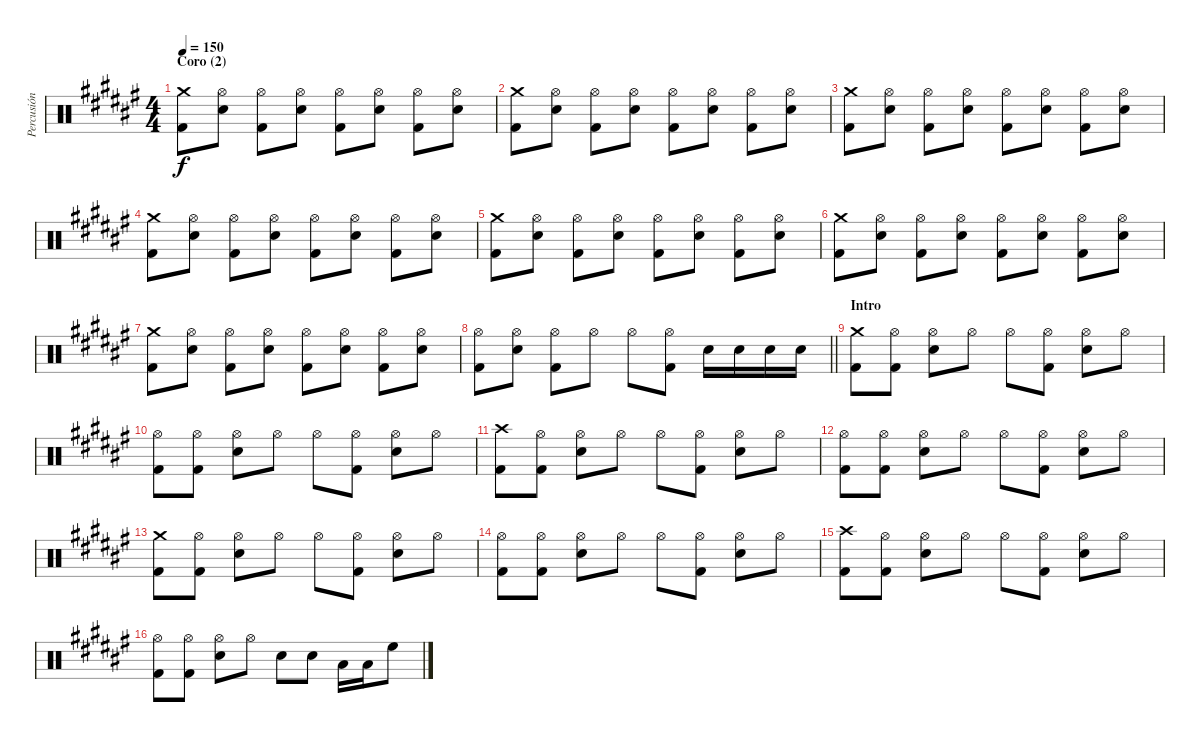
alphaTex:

\track ("Percusión" "Percusión") {instrument percussion}
\staff {score}
\articulation defaults
\ts (4 4)
\section ("" "Coro (2)")
\tempo 150
\clef neutral
\ks d#minor
("Crash medium (hit)" "Kick (hit) 2").8{dy f} ("Hi-Hat (open)" "Electric Snare (hit)").8 ("Hi-Hat (open)" "Kick (hit) 2").8 ("Hi-Hat (open)" "Electric Snare (hit)").8 ("Hi-Hat (open)" "Kick (hit) 2").8 ("Hi-Hat (open)" "Electric Snare (hit)").8 ("Hi-Hat (open)" "Kick (hit) 2").8 ("Hi-Hat (open)" "Electric Snare (hit)").8 |
("Crash medium (hit)" "Kick (hit) 2").8 ("Hi-Hat (open)" "Electric Snare (hit)").8 ("Hi-Hat (open)" "Kick (hit) 2").8 ("Hi-Hat (open)" "Electric Snare (hit)").8 ("Hi-Hat (open)" "Kick (hit) 2").8 ("Hi-Hat (open)" "Electric Snare (hit)").8 ("Hi-Hat (open)" "Kick (hit) 2").8 ("Hi-Hat (open)" "Electric Snare (hit)").8 |
("Crash medium (hit)" "Kick (hit) 2").8 ("Hi-Hat (open)" "Electric Snare (hit)").8 ("Hi-Hat (open)" "Kick (hit) 2").8 ("Hi-Hat (open)" "Electric Snare (hit)").8 ("Hi-Hat (open)" "Kick (hit) 2").8 ("Hi-Hat (open)" "Electric Snare (hit)").8 ("Hi-Hat (open)" "Kick (hit) 2").8 ("Hi-Hat (open)" "Electric Snare (hit)").8 |
("Crash medium (hit)" "Kick (hit) 2").8 ("Hi-Hat (open)" "Electric Snare (hit)").8 ("Hi-Hat (open)" "Kick (hit) 2").8 ("Hi-Hat (open)" "Electric Snare (hit)").8 ("Hi-Hat (open)" "Kick (hit) 2").8 ("Hi-Hat (open)" "Electric Snare (hit)").8 ("Hi-Hat (open)" "Kick (hit) 2").8 ("Hi-Hat (open)" "Electric Snare (hit)").8 |
("Crash medium (hit)" "Kick (hit) 2").8 ("Hi-Hat (open)" "Electric Snare (hit)").8 ("Hi-Hat (open)" "Kick (hit) 2").8 ("Hi-Hat (open)" "Electric Snare (hit)").8 ("Hi-Hat (open)" "Kick (hit) 2").8 ("Hi-Hat (open)" "Electric Snare (hit)").8 ("Hi-Hat (open)" "Kick (hit) 2").8 ("Hi-Hat (open)" "Electric Snare (hit)").8 |
("Crash medium (hit)" "Kick (hit) 2").8 ("Hi-Hat (open)" "Electric Snare (hit)").8 ("Hi-Hat (open)" "Kick (hit) 2").8 ("Hi-Hat (open)" "Electric Snare (hit)").8 ("Hi-Hat (open)" "Kick (hit) 2").8 ("Hi-Hat (open)" "Electric Snare (hit)").8 ("Hi-Hat (open)" "Kick (hit) 2").8 ("Hi-Hat (open)" "Electric Snare (hit)").8 |
("Crash medium (hit)" "Kick (hit) 2").8 ("Hi-Hat (open)" "Electric Snare (hit)").8 ("Hi-Hat (open)" "Kick (hit) 2").8 ("Hi-Hat (open)" "Electric Snare (hit)").8 ("Hi-Hat (open)" "Kick (hit) 2").8 ("Hi-Hat (open)" "Electric Snare (hit)").8 ("Hi-Hat (open)" "Kick (hit) 2").8 ("Hi-Hat (open)" "Electric Snare (hit)").8 |
\barLineRight lightlight
("Hi-Hat (open)" "Kick (hit) 2").8 ("Hi-Hat (open)" "Electric Snare (hit)").8 ("Hi-Hat (open)" "Kick (hit) 2").8 "Hi-Hat (open)".8 "Hi-Hat (open)".8 ("Hi-Hat (open)" "Kick (hit) 2").8 "Electric Snare (hit)".16 "Electric Snare (hit)".16 "Electric Snare (hit)".16 "Electric Snare (hit)".16 |
\section ("" "Intro")
("Crash medium (hit)" "Kick (hit) 2").8 ("Hi-Hat (open)" "Kick (hit) 2").8 ("Hi-Hat (open)" "Electric Snare (hit)").8 "Hi-Hat (open)".8 "Hi-Hat (open)".8 ("Hi-Hat (open)" "Kick (hit) 2").8 ("Hi-Hat (open)" "Electric Snare (hit)").8 "Hi-Hat (open)".8 |
("Hi-Hat (open)" "Kick (hit) 2").8 ("Hi-Hat (open)" "Kick (hit) 2").8 ("Hi-Hat (open)" "Electric Snare (hit)").8 "Hi-Hat (open)".8 "Hi-Hat (open)".8 ("Hi-Hat (open)" "Kick (hit) 2").8 ("Hi-Hat (open)" "Electric Snare (hit)").8 "Hi-Hat (open)".8 |
("Crash high (hit)" "Kick (hit) 2").8 ("Hi-Hat (open)" "Kick (hit) 2").8 ("Hi-Hat (open)" "Electric Snare (hit)").8 "Hi-Hat (open)".8 "Hi-Hat (open)".8 ("Hi-Hat (open)" "Kick (hit) 2").8 ("Hi-Hat (open)" "Electric Snare (hit)").8 "Hi-Hat (open)".8 |
("Hi-Hat (open)" "Kick (hit) 2").8 ("Hi-Hat (open)" "Kick (hit) 2").8 ("Hi-Hat (open)" "Electric Snare (hit)").8 "Hi-Hat (open)".8 "Hi-Hat (open)".8 ("Hi-Hat (open)" "Kick (hit) 2").8 ("Hi-Hat (open)" "Electric Snare (hit)").8 "Hi-Hat (open)".8 |
("Crash medium (hit)" "Kick (hit) 2").8 ("Hi-Hat (open)" "Kick (hit) 2").8 ("Hi-Hat (open)" "Electric Snare (hit)").8 "Hi-Hat (open)".8 "Hi-Hat (open)".8 ("Hi-Hat (open)" "Kick (hit) 2").8 ("Hi-Hat (open)" "Electric Snare (hit)").8 "Hi-Hat (open)".8 |
("Hi-Hat (open)" "Kick (hit) 2").8 ("Hi-Hat (open)" "Kick (hit) 2").8 ("Hi-Hat (open)" "Electric Snare (hit)").8 "Hi-Hat (open)".8 "Hi-Hat (open)".8 ("Hi-Hat (open)" "Kick (hit) 2").8 ("Hi-Hat (open)" "Electric Snare (hit)").8 "Hi-Hat (open)".8 |
("Crash high (hit)" "Kick (hit) 2").8 ("Hi-Hat (open)" "Kick (hit) 2").8 ("Hi-Hat (open)" "Electric Snare (hit)").8 "Hi-Hat (open)".8 "Hi-Hat (open)".8 ("Hi-Hat (open)" "Kick (hit) 2").8 ("Hi-Hat (open)" "Electric Snare (hit)").8 "Hi-Hat (open)".8 |
("Hi-Hat (open)" "Kick (hit) 2").8 ("Hi-Hat (open)" "Kick (hit) 2").8 ("Hi-Hat (open)" "Electric Snare (hit)").8 "Hi-Hat (open)".8 "Electric Snare (hit)".8 "Electric Snare (hit)".8 "Low Tom (hit)".16 "Low Tom (hit)".16 "High Floor Tom (hit)".8
